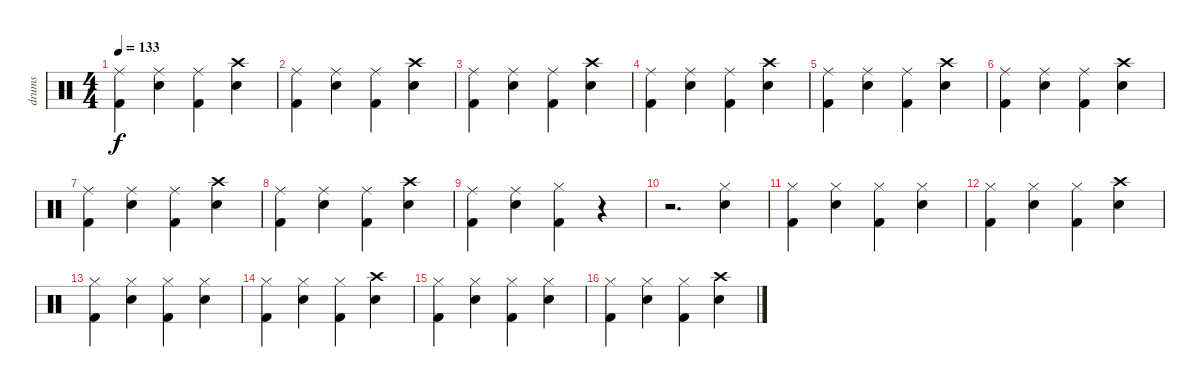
\track ("drums" "drums") {instrument percussion}
\staff {score}
\articulation defaults
\ts (4 4)
\tempo 133
\clef neutral
\ks c
("Ride (middle)" "Kick (hit) 2").4{dy f} ("Ride (middle)" "Snare (hit) 2").4 ("Ride (middle)" "Kick (hit) 2").4 ("Crash high (hit)" "Snare (hit) 2").4 |
("Ride (middle)" "Kick (hit) 2").4 ("Ride (middle)" "Snare (hit) 2").4 ("Ride (middle)" "Kick (hit) 2").4 ("Crash high (hit)" "Snare (hit) 2").4 |
("Ride (middle)" "Kick (hit) 2").4 ("Ride (middle)" "Snare (hit) 2").4 ("Ride (middle)" "Kick (hit) 2").4 ("Crash high (hit)" "Snare (hit) 2").4 |
("Ride (middle)" "Kick (hit) 2").4 ("Ride (middle)" "Snare (hit) 2").4 ("Ride (middle)" "Kick (hit) 2").4 ("Crash high (hit)" "Snare (hit) 2").4 |
("Ride (middle)" "Kick (hit) 2").4 ("Ride (middle)" "Snare (hit) 2").4 ("Ride (middle)" "Kick (hit) 2").4 ("Crash high (hit)" "Snare (hit) 2").4 |
("Ride (middle)" "Kick (hit) 2").4 ("Ride (middle)" "Snare (hit) 2").4 ("Ride (middle)" "Kick (hit) 2").4 ("Crash high (hit)" "Snare (hit) 2").4 |
("Ride (middle)" "Kick (hit) 2").4 ("Ride (middle)" "Snare (hit) 2").4 ("Ride (middle)" "Kick (hit) 2").4 ("Crash high (hit)" "Snare (hit) 2").4 |
("Ride (middle)" "Kick (hit) 2").4 ("Ride (middle)" "Snare (hit) 2").4 ("Ride (middle)" "Kick (hit) 2").4 ("Crash high (hit)" "Snare (hit) 2").4 |
("Ride (middle)" "Kick (hit) 2").4 ("Ride (middle)" "Snare (hit) 2").4 ("Hi-Hat (closed)" "Kick (hit) 2").4 r.4 |
r.2{d} ("Hi-Hat (closed)" "Snare (hit) 2").4 |
("Hi-Hat (closed)" "Kick (hit) 2").4 ("Hi-Hat (closed)" "Snare (hit) 2").4 ("Hi-Hat (closed)" "Kick (hit) 2").4 ("Hi-Hat (closed)" "Snare (hit) 2").4 |
("Hi-Hat (closed)" "Kick (hit) 2").4 ("Hi-Hat (closed)" "Snare (hit) 2").4 ("Hi-Hat (closed)" "Kick (hit) 2").4 ("Crash high (hit)" "Snare (hit) 2").4 |
("Hi-Hat (closed)" "Kick (hit) 2").4 ("Hi-Hat (closed)" "Snare (hit) 2").4 ("Hi-Hat (closed)" "Kick (hit) 2").4 ("Hi-Hat (closed)" "Snare (hit) 2").4 |
("Hi-Hat (closed)" "Kick (hit) 2").4 ("Hi-Hat (closed)" "Snare (hit) 2").4 ("Hi-Hat (closed)" "Kick (hit) 2").4 ("Crash high (hit)" "Snare (hit) 2").4 |
("Hi-Hat (closed)" "Kick (hit) 2").4 ("Hi-Hat (closed)" "Snare (hit) 2").4 ("Hi-Hat (closed)" "Kick (hit) 2").4 ("Hi-Hat (closed)" "Snare (hit) 2").4 |
("Hi-Hat (closed)" "Kick (hit) 2").4 ("Hi-Hat (closed)" "Snare (hit) 2").4 ("Hi-Hat (closed)" "Kick (hit) 2").4 ("Crash high (hit)" "Snare (hit) 2").4
